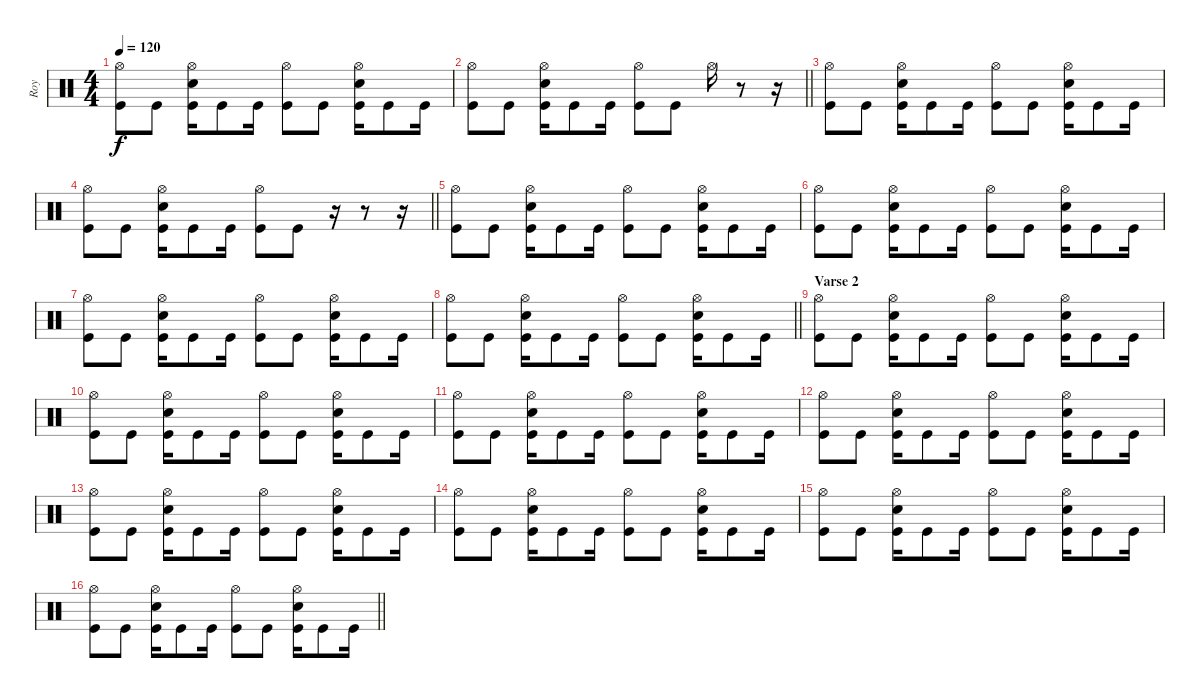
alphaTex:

\track ("Roy" "Roy") {instrument percussion}
\staff {score}
\articulation defaults
\ts (4 4)
\tempo 120
\clef neutral
\ks c
("Hi-Hat (open)" "Kick (hit)").8{dy f} "Kick (hit)".8 ("Hi-Hat (open)" "Electric Snare (hit)" "Kick (hit)").16 "Kick (hit)".8 "Kick (hit)".16 ("Hi-Hat (open)" "Kick (hit)").8 "Kick (hit)".8 ("Hi-Hat (open)" "Electric Snare (hit)" "Kick (hit)").16 "Kick (hit)".8 "Kick (hit)".16 |
\barLineRight lightlight
("Hi-Hat (open)" "Kick (hit)").8 "Kick (hit)".8 ("Hi-Hat (open)" "Electric Snare (hit)" "Kick (hit)").16 "Kick (hit)".8 "Kick (hit)".16 ("Hi-Hat (open)" "Kick (hit)").8 "Kick (hit)".8 "Hi-Hat (open)".16 r.8 r.16 |
("Hi-Hat (open)" "Kick (hit)").8 "Kick (hit)".8 ("Hi-Hat (open)" "Electric Snare (hit)" "Kick (hit)").16 "Kick (hit)".8 "Kick (hit)".16 ("Hi-Hat (open)" "Kick (hit)").8 "Kick (hit)".8 ("Hi-Hat (open)" "Electric Snare (hit)" "Kick (hit)").16 "Kick (hit)".8 "Kick (hit)".16 |
\barLineRight lightlight
("Hi-Hat (open)" "Kick (hit)").8 "Kick (hit)".8 ("Hi-Hat (open)" "Electric Snare (hit)" "Kick (hit)").16 "Kick (hit)".8 "Kick (hit)".16 ("Hi-Hat (open)" "Kick (hit)").8 "Kick (hit)".8 r.16 r.8 r.16 |
\section ("" "")
("Hi-Hat (open)" "Kick (hit)").8 "Kick (hit)".8 ("Hi-Hat (open)" "Electric Snare (hit)" "Kick (hit)").16 "Kick (hit)".8 "Kick (hit)".16 ("Hi-Hat (open)" "Kick (hit)").8 "Kick (hit)".8 ("Hi-Hat (open)" "Electric Snare (hit)" "Kick (hit)").16 "Kick (hit)".8 "Kick (hit)".16 |
("Hi-Hat (open)" "Kick (hit)").8 "Kick (hit)".8 ("Hi-Hat (open)" "Electric Snare (hit)" "Kick (hit)").16 "Kick (hit)".8 "Kick (hit)".16 ("Hi-Hat (open)" "Kick (hit)").8 "Kick (hit)".8 ("Hi-Hat (open)" "Electric Snare (hit)" "Kick (hit)").16 "Kick (hit)".8 "Kick (hit)".16 |
("Hi-Hat (open)" "Kick (hit)").8 "Kick (hit)".8 ("Hi-Hat (open)" "Electric Snare (hit)" "Kick (hit)").16 "Kick (hit)".8 "Kick (hit)".16 ("Hi-Hat (open)" "Kick (hit)").8 "Kick (hit)".8 ("Hi-Hat (open)" "Electric Snare (hit)" "Kick (hit)").16 "Kick (hit)".8 "Kick (hit)".16 |
\barLineRight lightlight
("Hi-Hat (open)" "Kick (hit)").8 "Kick (hit)".8 ("Hi-Hat (open)" "Electric Snare (hit)" "Kick (hit)").16 "Kick (hit)".8 "Kick (hit)".16 ("Hi-Hat (open)" "Kick (hit)").8 "Kick (hit)".8 ("Hi-Hat (open)" "Electric Snare (hit)" "Kick (hit)").16 "Kick (hit)".8 "Kick (hit)".16 |
\section ("" "Varse 2")
("Hi-Hat (open)" "Kick (hit)").8 "Kick (hit)".8 ("Hi-Hat (open)" "Electric Snare (hit)" "Kick (hit)").16 "Kick (hit)".8 "Kick (hit)".16 ("Hi-Hat (open)" "Kick (hit)").8 "Kick (hit)".8 ("Hi-Hat (open)" "Electric Snare (hit)" "Kick (hit)").16 "Kick (hit)".8 "Kick (hit)".16 |
("Hi-Hat (open)" "Kick (hit)").8 "Kick (hit)".8 ("Hi-Hat (open)" "Electric Snare (hit)" "Kick (hit)").16 "Kick (hit)".8 "Kick (hit)".16 ("Hi-Hat (open)" "Kick (hit)").8 "Kick (hit)".8 ("Hi-Hat (open)" "Electric Snare (hit)" "Kick (hit)").16 "Kick (hit)".8 "Kick (hit)".16 |
("Hi-Hat (open)" "Kick (hit)").8 "Kick (hit)".8 ("Hi-Hat (open)" "Electric Snare (hit)" "Kick (hit)").16 "Kick (hit)".8 "Kick (hit)".16 ("Hi-Hat (open)" "Kick (hit)").8 "Kick (hit)".8 ("Hi-Hat (open)" "Electric Snare (hit)" "Kick (hit)").16 "Kick (hit)".8 "Kick (hit)".16 |
("Hi-Hat (open)" "Kick (hit)").8 "Kick (hit)".8 ("Hi-Hat (open)" "Electric Snare (hit)" "Kick (hit)").16 "Kick (hit)".8 "Kick (hit)".16 ("Hi-Hat (open)" "Kick (hit)").8 "Kick (hit)".8 ("Hi-Hat (open)" "Electric Snare (hit)" "Kick (hit)").16 "Kick (hit)".8 "Kick (hit)".16 |
("Hi-Hat (open)" "Kick (hit)").8 "Kick (hit)".8 ("Hi-Hat (open)" "Electric Snare (hit)" "Kick (hit)").16 "Kick (hit)".8 "Kick (hit)".16 ("Hi-Hat (open)" "Kick (hit)").8 "Kick (hit)".8 ("Hi-Hat (open)" "Electric Snare (hit)" "Kick (hit)").16 "Kick (hit)".8 "Kick (hit)".16 |
("Hi-Hat (open)" "Kick (hit)").8 "Kick (hit)".8 ("Hi-Hat (open)" "Electric Snare (hit)" "Kick (hit)").16 "Kick (hit)".8 "Kick (hit)".16 ("Hi-Hat (open)" "Kick (hit)").8 "Kick (hit)".8 ("Hi-Hat (open)" "Electric Snare (hit)" "Kick (hit)").16 "Kick (hit)".8 "Kick (hit)".16 |
("Hi-Hat (open)" "Kick (hit)").8 "Kick (hit)".8 ("Hi-Hat (open)" "Electric Snare (hit)" "Kick (hit)").16 "Kick (hit)".8 "Kick (hit)".16 ("Hi-Hat (open)" "Kick (hit)").8 "Kick (hit)".8 ("Hi-Hat (open)" "Electric Snare (hit)" "Kick (hit)").16 "Kick (hit)".8 "Kick (hit)".16 |
\barLineRight lightlight
("Hi-Hat (open)" "Kick (hit)").8 "Kick (hit)".8 ("Hi-Hat (open)" "Electric Snare (hit)" "Kick (hit)").16 "Kick (hit)".8 "Kick (hit)".16 ("Hi-Hat (open)" "Kick (hit)").8 "Kick (hit)".8 ("Hi-Hat (open)" "Electric Snare (hit)" "Kick (hit)").16 "Kick (hit)".8 "Kick (hit)".16
